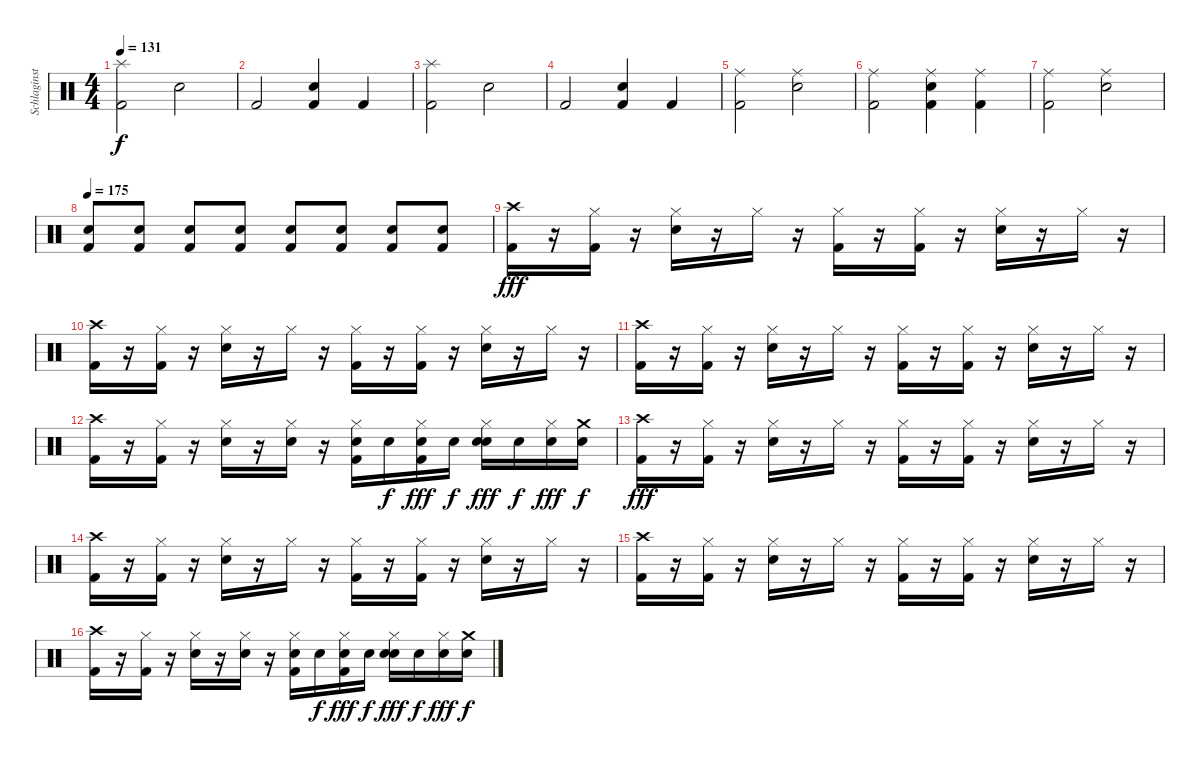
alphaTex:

\track ("Schlaginstrumente - Auswahl" "Schlaginst") {instrument percussion}
\staff {score}
\articulation defaults
\ts (4 4)
\tempo 131
\clef neutral
\ks c
("Splash (hit)" "Kick (hit) 2").2{dy f} "Snare (hit) 2".2 |
"Kick (hit) 2".2 ("Kick (hit) 2" "Snare (hit) 2").4 "Kick (hit) 2".4 |
("Splash (hit)" "Kick (hit) 2").2 "Snare (hit) 2".2 |
"Kick (hit) 2".2 ("Kick (hit) 2" "Snare (hit) 2").4 "Kick (hit) 2".4 |
("Ride (middle)" "Kick (hit) 2").2 ("Ride (middle)" "Snare (hit) 2").2 |
("Ride (middle)" "Kick (hit) 2").2 ("Ride (middle)" "Kick (hit) 2" "Snare (hit) 2").4 ("Ride (middle)" "Kick (hit) 2").4 |
("Ride (middle)" "Kick (hit) 2").2 ("Ride (middle)" "Snare (hit) 2").2 |
\tempo 175
("Kick (hit) 2" "Snare (hit) 2").8 ("Kick (hit) 2" "Snare (hit) 2").8 ("Kick (hit) 2" "Snare (hit) 2").8 ("Kick (hit) 2" "Snare (hit) 2").8 ("Kick (hit) 2" "Snare (hit) 2").8 ("Kick (hit) 2" "Snare (hit) 2").8 ("Kick (hit) 2" "Snare (hit) 2").8 ("Kick (hit) 2" "Snare (hit) 2").8 |
("Kick (hit) 2" "Crash high (hit)").16{dy fff} r.16 ("Hi-Hat (closed)" "Kick (hit) 2").16 r.16 ("Snare (hit) 2" "Hi-Hat (closed)").16 r.16 "Hi-Hat (closed)".16 r.16 ("Kick (hit) 2" "Hi-Hat (closed)").16 r.16 ("Kick (hit) 2" "Hi-Hat (closed)").16 r.16 ("Snare (hit) 2" "Hi-Hat (closed)").16 r.16 "Hi-Hat (closed)".16 r.16 |
("Kick (hit) 2" "Crash high (hit)").16 r.16 ("Hi-Hat (closed)" "Kick (hit) 2").16 r.16 ("Snare (hit) 2" "Hi-Hat (closed)").16 r.16 "Hi-Hat (closed)".16 r.16 ("Kick (hit) 2" "Hi-Hat (closed)").16 r.16 ("Kick (hit) 2" "Hi-Hat (closed)").16 r.16 ("Snare (hit) 2" "Hi-Hat (closed)").16 r.16 "Hi-Hat (closed)".16 r.16 |
("Kick (hit) 2" "Crash high (hit)").16 r.16 ("Hi-Hat (closed)" "Kick (hit) 2").16 r.16 ("Snare (hit) 2" "Hi-Hat (closed)").16 r.16 "Hi-Hat (closed)".16 r.16 ("Kick (hit) 2" "Hi-Hat (closed)").16 r.16 ("Kick (hit) 2" "Hi-Hat (closed)").16 r.16 ("Snare (hit) 2" "Hi-Hat (closed)").16 r.16 "Hi-Hat (closed)".16 r.16 |
("Kick (hit) 2" "Crash high (hit)").16 r.16 ("Hi-Hat (closed)" "Kick (hit) 2").16 r.16 ("Snare (hit) 2" "Hi-Hat (closed)").16 r.16 ("Hi-Hat (closed)" "Snare (hit) 2").16 r.16 ("Kick (hit) 2" "Hi-Hat (closed)" "Snare (hit) 2").16 "Snare (hit) 2".16{dy f} ("Kick (hit) 2" "Hi-Hat (closed)" "Snare (hit) 2").16{dy fff} "Snare (hit) 2".16{dy f} ("Snare (hit) 2" "Hi-Hat (closed)" "Snare (hit) 2").16{dy fff} "Snare (hit) 2".16{dy f} ("Hi-Hat (closed)" "Snare (hit) 2").16{dy fff} ("Crash medium (hit)" "Snare (hit) 2").16{dy f} |
("Kick (hit) 2" "Crash high (hit)").16{dy fff} r.16 ("Hi-Hat (closed)" "Kick (hit) 2").16 r.16 ("Snare (hit) 2" "Hi-Hat (closed)").16 r.16 "Hi-Hat (closed)".16 r.16 ("Kick (hit) 2" "Hi-Hat (closed)").16 r.16 ("Kick (hit) 2" "Hi-Hat (closed)").16 r.16 ("Snare (hit) 2" "Hi-Hat (closed)").16 r.16 "Hi-Hat (closed)".16 r.16 |
("Kick (hit) 2" "Crash high (hit)").16 r.16 ("Hi-Hat (closed)" "Kick (hit) 2").16 r.16 ("Snare (hit) 2" "Hi-Hat (closed)").16 r.16 "Hi-Hat (closed)".16 r.16 ("Kick (hit) 2" "Hi-Hat (closed)").16 r.16 ("Kick (hit) 2" "Hi-Hat (closed)").16 r.16 ("Snare (hit) 2" "Hi-Hat (closed)").16 r.16 "Hi-Hat (closed)".16 r.16 |
("Kick (hit) 2" "Crash high (hit)").16 r.16 ("Hi-Hat (closed)" "Kick (hit) 2").16 r.16 ("Snare (hit) 2" "Hi-Hat (closed)").16 r.16 "Hi-Hat (closed)".16 r.16 ("Kick (hit) 2" "Hi-Hat (closed)").16 r.16 ("Kick (hit) 2" "Hi-Hat (closed)").16 r.16 ("Snare (hit) 2" "Hi-Hat (closed)").16 r.16 "Hi-Hat (closed)".16 r.16 |
("Kick (hit) 2" "Crash high (hit)").16 r.16 ("Hi-Hat (closed)" "Kick (hit) 2").16 r.16 ("Snare (hit) 2" "Hi-Hat (closed)").16 r.16 ("Hi-Hat (closed)" "Snare (hit) 2").16 r.16 ("Kick (hit) 2" "Hi-Hat (closed)" "Snare (hit) 2").16 "Snare (hit) 2".16{dy f} ("Kick (hit) 2" "Hi-Hat (closed)" "Snare (hit) 2").16{dy fff} "Snare (hit) 2".16{dy f} ("Snare (hit) 2" "Hi-Hat (closed)" "Snare (hit) 2").16{dy fff} "Snare (hit) 2".16{dy f} ("Hi-Hat (closed)" "Snare (hit) 2").16{dy fff} ("Crash medium (hit)" "Snare (hit) 2").16{dy f}
